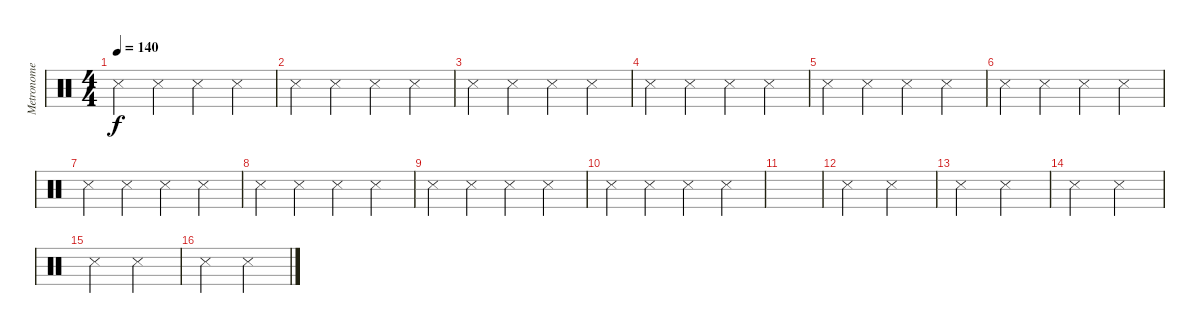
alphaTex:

\track ("Metronome" "Metronome") {instrument percussion}
\staff {score}
\articulation defaults
\ts (4 4)
\tempo 140
\clef neutral
\ks c "Snare (side stick) 3".4{dy f} "Snare (side stick) 3".4 "Snare (side stick) 3".4 "Snare (side stick) 3".4
|
"Snare (side stick) 3".4 "Snare (side stick) 3".4 "Snare (side stick) 3".4 "Snare (side stick) 3".4 |
"Snare (side stick) 3".4 "Snare (side stick) 3".4 "Snare (side stick) 3".4 "Snare (side stick) 3".4 |
"Snare (side stick) 3".4 "Snare (side stick) 3".4 "Snare (side stick) 3".4 "Snare (side stick) 3".4 |
"Snare (side stick) 3".4 "Snare (side stick) 3".4 "Snare (side stick) 3".4 "Snare (side stick) 3".4 |
"Snare (side stick) 3".4 "Snare (side stick) 3".4 "Snare (side stick) 3".4 "Snare (side stick) 3".4 |
"Snare (side stick) 3".4 "Snare (side stick) 3".4 "Snare (side stick) 3".4 "Snare (side stick) 3".4 |
"Snare (side stick) 3".4 "Snare (side stick) 3".4 "Snare (side stick) 3".4 "Snare (side stick) 3".4 |
"Snare (side stick) 3".4 "Snare (side stick) 3".4 "Snare (side stick) 3".4 "Snare (side stick) 3".4 |
"Snare (side stick) 3".4 "Snare (side stick) 3".4 "Snare (side stick) 3".4 "Snare (side stick) 3".4 |
|
"Snare (side stick) 3".2 "Snare (side stick) 3".2 |
"Snare (side stick) 3".2 "Snare (side stick) 3".2 |
"Snare (side stick) 3".2 "Snare (side stick) 3".2 |
"Snare (side stick) 3".2 "Snare (side stick) 3".2 |
"Snare (side stick) 3".2 "Snare (side stick) 3".2
